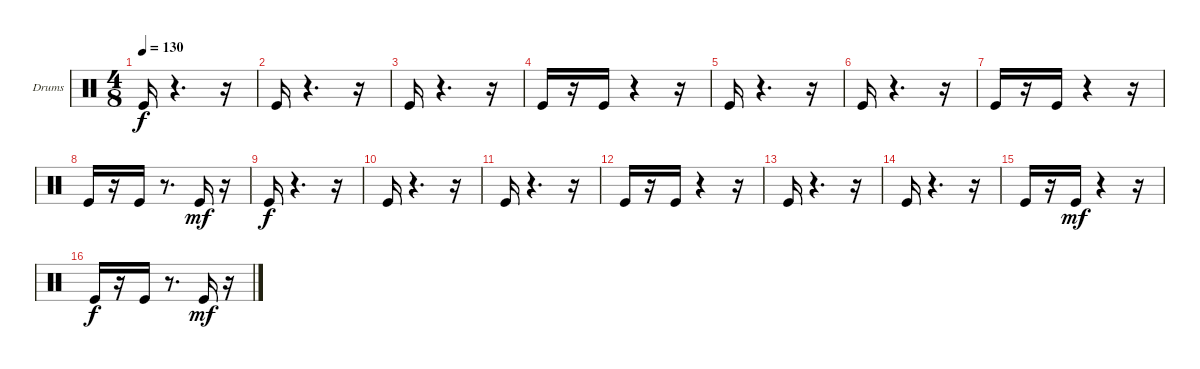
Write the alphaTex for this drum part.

\bracketExtendMode groupsimilarinstruments
\firstSystemTrackNameOrientation horizontal
\otherSystemsTrackNameOrientation horizontal
\track ("Ударные" "Drums") {instrument percussion}
\staff {score}
\articulation defaults
\ts (4 8)
\tempo 130
\clef neutral
\ks c "Kick (hit)".16{dy f}
r.4{d} r.16 |
"Kick (hit)".16 r.4{d} r.16 |
"Kick (hit)".16 r.4{d} r.16 |
"Kick (hit)".16 r.16 "Kick (hit)".16 r.4 r.16 |
"Kick (hit)".16 r.4{d} r.16 |
"Kick (hit)".16 r.4{d} r.16 |
"Kick (hit)".16 r.16 "Kick (hit)".16 r.4 r.16 |
"Kick (hit)".16 r.16 "Kick (hit)".16 r.8{d} "Kick (hit)".16{dy mf} r.16 |
"Kick (hit)".16{dy f} r.4{d} r.16 |
"Kick (hit)".16 r.4{d} r.16 |
"Kick (hit)".16 r.4{d} r.16 |
"Kick (hit)".16 r.16 "Kick (hit)".16 r.4 r.16 |
"Kick (hit)".16 r.4{d} r.16 |
"Kick (hit)".16 r.4{d} r.16 |
"Kick (hit)".16 r.16 "Kick (hit)".16{dy mf} r.4 r.16 |
"Kick (hit)".16{dy f} r.16 "Kick (hit)".16 r.8{d} "Kick (hit)".16{dy mf} r.16
